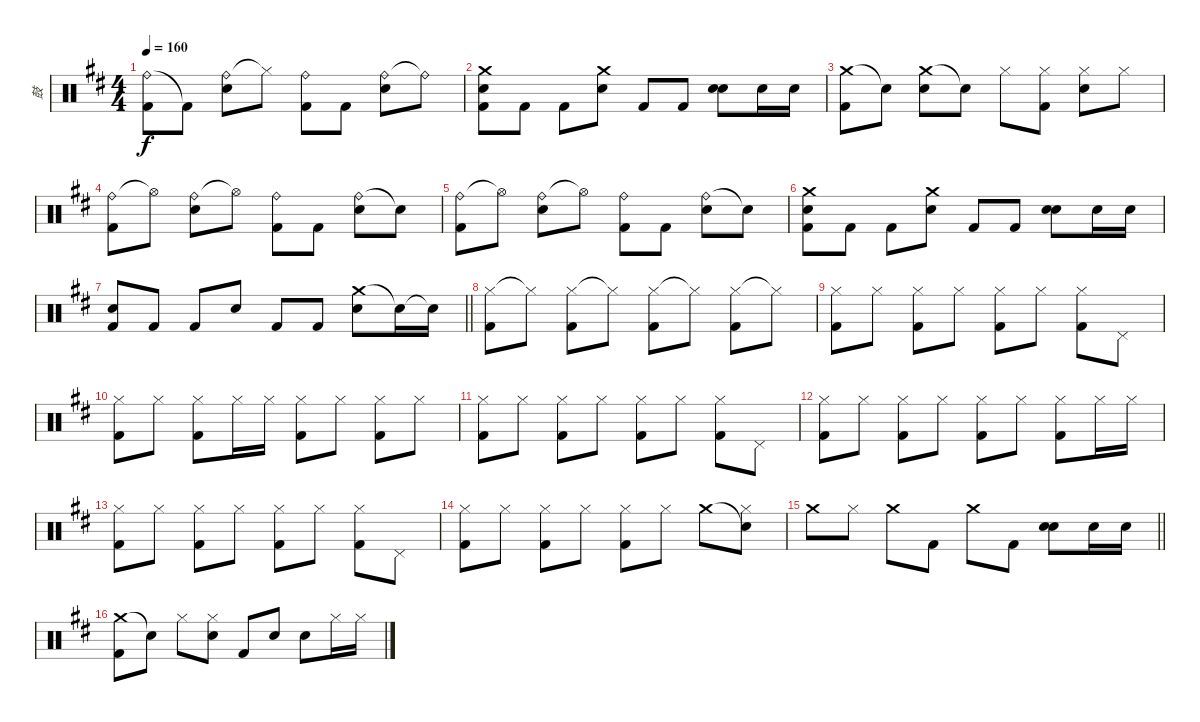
\track ("鼓" "鼓") {instrument percussion}
\staff {score}
\articulation defaults
\ts (4 4)
\tempo 160
\clef neutral
\ks d
("Ride (bell)" "Kick (hit) 2").8{dy f} "Kick (hit) 2"{t}.8 ("Ride (bell)" "Electric Snare (hit)").8 "Hi-Hat (closed)"{t}.8 ("Ride (bell)" "Kick (hit) 2").8 "Kick (hit) 2".8 ("Ride (bell)" "Electric Snare (hit)").8 "Ride (bell)"{t}.8 |
("Crash medium (hit)" "Electric Snare (hit)" "Kick (hit) 2").8 "Kick (hit) 2".8 "Kick (hit) 2".8 ("Crash medium (hit)" "Electric Snare (hit)").8 "Kick (hit) 2".8 "Kick (hit) 2".8 ("Electric Snare (hit)" "Electric Snare (hit)").8 "Electric Snare (hit)".16 "Electric Snare (hit)".16 |
("Crash medium (hit)" "Kick (hit) 2").8 "Snare (hit)"{t}.8 ("Crash medium (hit)" "Electric Snare (hit)").8 "Snare (hit)"{t}.8 "Hi-Hat (closed)".8 ("Hi-Hat (closed)" "Kick (hit) 2").8 ("Hi-Hat (closed)" "Electric Snare (hit)").8 "Hi-Hat (closed)".8 |
("Ride (bell)" "Kick (hit) 2").8 "Hi-Hat (open)"{t}.8 ("Ride (bell)" "Electric Snare (hit)").8 "Hi-Hat (open)"{t}.8 ("Ride (bell)" "Kick (hit) 2").8 "Kick (hit) 2".8 ("Ride (bell)" "Electric Snare (hit)").8 "Snare (hit)"{t}.8 |
("Ride (bell)" "Kick (hit) 2").8 "Hi-Hat (open)"{t}.8 ("Ride (bell)" "Electric Snare (hit)").8 "Hi-Hat (open)"{t}.8 ("Ride (bell)" "Kick (hit) 2").8 "Kick (hit) 2".8 ("Ride (bell)" "Electric Snare (hit)").8 "Snare (hit)"{t}.8 |
("Crash medium (hit)" "Electric Snare (hit)" "Kick (hit) 2").8 "Kick (hit) 2".8 "Kick (hit) 2".8 ("Crash medium (hit)" "Electric Snare (hit)").8 "Kick (hit) 2".8 "Kick (hit) 2".8 ("Electric Snare (hit)" "Electric Snare (hit)").8 "Electric Snare (hit)".16 "Electric Snare (hit)".16 |
\barLineRight lightlight
("Electric Snare (hit)" "Kick (hit) 2").8 "Kick (hit) 2".8 "Kick (hit) 2".8 "Electric Snare (hit)".8 "Kick (hit) 2".8 "Kick (hit) 2".8 ("Crash medium (hit)" "Electric Snare (hit)").8 "Snare (hit) 2"{t}.16 "Snare (hit) 2"{t}.16 |
("Hi-Hat (closed)" "Kick (hit) 2").8 "Hi-Hat (closed)"{t}.8 ("Hi-Hat (closed)" "Kick (hit) 2").8 "Hi-Hat (closed)"{t}.8 ("Hi-Hat (closed)" "Kick (hit) 2").8 "Hi-Hat (closed)"{t}.8 ("Hi-Hat (closed)" "Kick (hit) 2").8 "Hi-Hat (closed)"{t}.8 |
("Hi-Hat (closed)" "Kick (hit) 2").8 "Hi-Hat (closed)".8 ("Hi-Hat (closed)" "Kick (hit) 2").8 "Hi-Hat (closed)".8 ("Hi-Hat (closed)" "Kick (hit) 2").8 "Hi-Hat (closed)".8 ("Hi-Hat (closed)" "Kick (hit) 2").8 "Pedal Hi-Hat (hit)".8 |
("Hi-Hat (closed)" "Kick (hit) 2").8 "Hi-Hat (closed)".8 ("Hi-Hat (closed)" "Kick (hit) 2").8 "Hi-Hat (closed)".16 "Hi-Hat (closed)".16 ("Hi-Hat (closed)" "Kick (hit) 2").8 "Hi-Hat (closed)".8 ("Hi-Hat (closed)" "Kick (hit) 2").8 "Hi-Hat (closed)".8 |
("Hi-Hat (closed)" "Kick (hit) 2").8 "Hi-Hat (closed)".8 ("Hi-Hat (closed)" "Kick (hit) 2").8 "Hi-Hat (closed)".8 ("Hi-Hat (closed)" "Kick (hit) 2").8 "Hi-Hat (closed)".8 ("Hi-Hat (closed)" "Kick (hit) 2").8 "Pedal Hi-Hat (hit)".8 |
("Hi-Hat (closed)" "Kick (hit) 2").8 "Hi-Hat (closed)".8 ("Hi-Hat (closed)" "Kick (hit) 2").8 "Hi-Hat (closed)".8 ("Hi-Hat (closed)" "Kick (hit) 2").8 "Hi-Hat (closed)".8 ("Hi-Hat (closed)" "Kick (hit) 2").8 "Hi-Hat (closed)".16 "Hi-Hat (closed)".16 |
("Hi-Hat (closed)" "Kick (hit) 2").8 "Hi-Hat (closed)".8 ("Hi-Hat (closed)" "Kick (hit) 2").8 "Hi-Hat (closed)".8 ("Hi-Hat (closed)" "Kick (hit) 2").8 "Hi-Hat (closed)".8 ("Hi-Hat (closed)" "Kick (hit) 2").8 "Pedal Hi-Hat (hit)".8 |
("Hi-Hat (closed)" "Kick (hit) 2").8 "Hi-Hat (closed)".8 ("Hi-Hat (closed)" "Kick (hit) 2").8 "Hi-Hat (closed)".8 ("Hi-Hat (closed)" "Kick (hit) 2").8 "Hi-Hat (closed)".8 "Crash medium (hit)".8 ("Snare (hit)"{t} "Hi-Hat (closed)").8 |
\barLineRight lightlight "Crash medium (hit)".8 "Hi-Hat (closed)".8 "Crash medium (hit)".8 "Kick (hit) 2".8 "Crash medium (hit)".8 "Kick (hit) 2".8
("Electric Snare (hit)" "Electric Snare (hit)").8 "Electric Snare (hit)".16 "Electric Snare (hit)".16 |
("Crash medium (hit)" "Kick (hit) 2").8 "Snare (hit)"{t}.8 "Hi-Hat (closed)".8 ("Hi-Hat (closed)" "Electric Snare (hit)").8 "Kick (hit) 2".8 "Electric Snare (hit)".8 "Electric Snare (hit)".8 "Hi-Hat (closed)".16 "Hi-Hat (closed)".16
